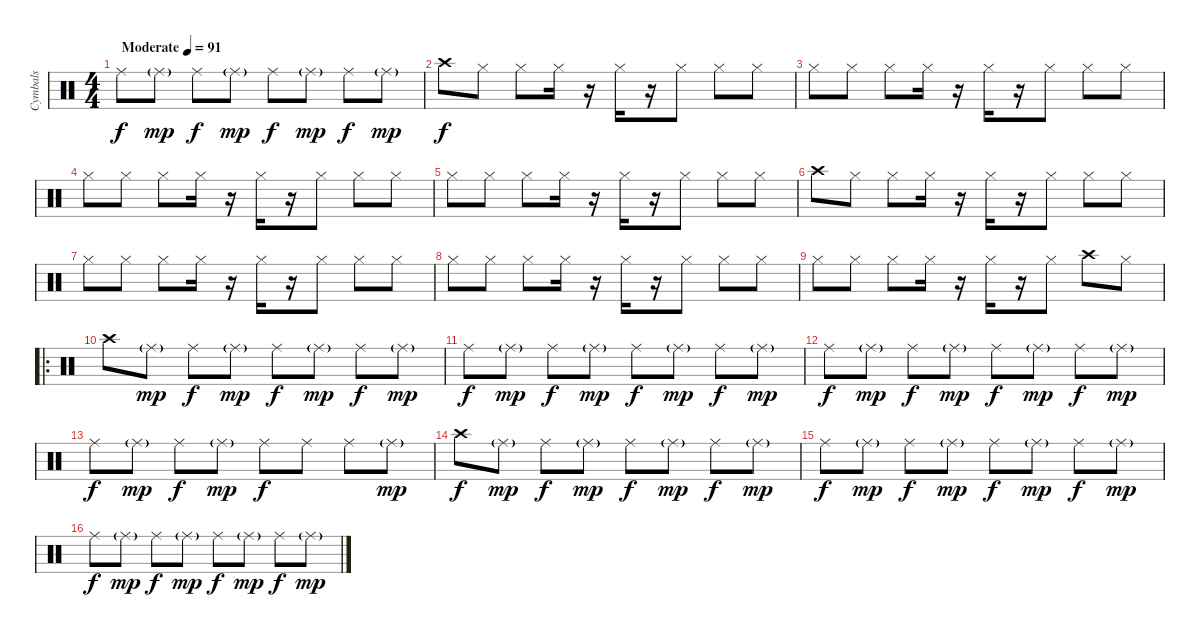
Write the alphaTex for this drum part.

\track ("Cymbals" "Cymbals") {instrument percussion}
\staff {score}
\articulation defaults
\ts (4 4)
\tempo (91 "Moderate")
\clef neutral
\ks c "Ride (middle)".8{dy f} "Ride (middle)"{g}.8{dy mp} "Ride (middle)".8{dy f} "Ride (middle)"{g}.8{dy mp} "Ride (middle)".8{dy f} "Ride (middle)"{g}.8{dy mp} "Ride (middle)".8{dy f} "Ride (middle)"{g}.8{dy mp}
|
"Crash high (hit)".8{dy f} "Hi-Hat (closed)".8 "Hi-Hat (closed)".8 "Hi-Hat (closed)".16 r.16 "Hi-Hat (closed)".16 r.16 "Hi-Hat (closed)".8 "Hi-Hat (closed)".8 "Hi-Hat (closed)".8 |
"Hi-Hat (closed)".8 "Hi-Hat (closed)".8 "Hi-Hat (closed)".8 "Hi-Hat (closed)".16 r.16 "Hi-Hat (closed)".16 r.16 "Hi-Hat (closed)".8 "Hi-Hat (closed)".8 "Hi-Hat (closed)".8 |
"Hi-Hat (closed)".8 "Hi-Hat (closed)".8 "Hi-Hat (closed)".8 "Hi-Hat (closed)".16 r.16 "Hi-Hat (closed)".16 r.16 "Hi-Hat (closed)".8 "Hi-Hat (closed)".8 "Hi-Hat (closed)".8 |
"Hi-Hat (closed)".8 "Hi-Hat (closed)".8 "Hi-Hat (closed)".8 "Hi-Hat (closed)".16 r.16 "Hi-Hat (closed)".16 r.16 "Hi-Hat (closed)".8 "Hi-Hat (closed)".8 "Hi-Hat (closed)".8 |
"Crash high (hit)".8 "Hi-Hat (closed)".8 "Hi-Hat (closed)".8 "Hi-Hat (closed)".16 r.16 "Hi-Hat (closed)".16 r.16 "Hi-Hat (closed)".8 "Hi-Hat (closed)".8 "Hi-Hat (closed)".8 |
"Hi-Hat (closed)".8 "Hi-Hat (closed)".8 "Hi-Hat (closed)".8 "Hi-Hat (closed)".16 r.16 "Hi-Hat (closed)".16 r.16 "Hi-Hat (closed)".8 "Hi-Hat (closed)".8 "Hi-Hat (closed)".8 |
"Hi-Hat (closed)".8 "Hi-Hat (closed)".8 "Hi-Hat (closed)".8 "Hi-Hat (closed)".16 r.16 "Hi-Hat (closed)".16 r.16 "Hi-Hat (closed)".8 "Hi-Hat (closed)".8 "Hi-Hat (closed)".8 |
"Hi-Hat (closed)".8 "Hi-Hat (closed)".8 "Hi-Hat (closed)".8 "Hi-Hat (closed)".16 r.16 "Hi-Hat (closed)".16 r.16 "Hi-Hat (closed)".8 "Crash high (hit)".8 "Hi-Hat (closed)".8 |
\ro "Crash high (hit)".8 "Ride (middle)"{g}.8{dy mp} "Ride (middle)".8{dy f} "Ride (middle)"{g}.8{dy mp} "Ride (middle)".8{dy f} "Ride (middle)"{g}.8{dy mp} "Ride (middle)".8{dy f} "Ride (middle)"{g}.8{dy mp}
|
"Ride (middle)".8{dy f} "Ride (middle)"{g}.8{dy mp} "Ride (middle)".8{dy f} "Ride (middle)"{g}.8{dy mp} "Ride (middle)".8{dy f} "Ride (middle)"{g}.8{dy mp} "Ride (middle)".8{dy f} "Ride (middle)"{g}.8{dy mp} |
"Ride (middle)".8{dy f} "Ride (middle)"{g}.8{dy mp} "Ride (middle)".8{dy f} "Ride (middle)"{g}.8{dy mp} "Ride (middle)".8{dy f} "Ride (middle)"{g}.8{dy mp} "Ride (middle)".8{dy f} "Ride (middle)"{g}.8{dy mp} |
"Ride (middle)".8{dy f} "Ride (middle)"{g}.8{dy mp} "Ride (middle)".8{dy f} "Ride (middle)"{g}.8{dy mp} "Ride (middle)".8{dy f} "Ride (middle)".8 "Ride (middle)".8 "Ride (middle)"{g}.8{dy mp} |
"Crash high (hit)".8{dy f} "Ride (middle)"{g}.8{dy mp} "Ride (middle)".8{dy f} "Ride (middle)"{g}.8{dy mp} "Ride (middle)".8{dy f} "Ride (middle)"{g}.8{dy mp} "Ride (middle)".8{dy f} "Ride (middle)"{g}.8{dy mp} |
"Ride (middle)".8{dy f} "Ride (middle)"{g}.8{dy mp} "Ride (middle)".8{dy f} "Ride (middle)"{g}.8{dy mp} "Ride (middle)".8{dy f} "Ride (middle)"{g}.8{dy mp} "Ride (middle)".8{dy f} "Ride (middle)"{g}.8{dy mp} |
"Ride (middle)".8{dy f} "Ride (middle)"{g}.8{dy mp} "Ride (middle)".8{dy f} "Ride (middle)"{g}.8{dy mp} "Ride (middle)".8{dy f} "Ride (middle)"{g}.8{dy mp} "Ride (middle)".8{dy f} "Ride (middle)"{g}.8{dy mp}
